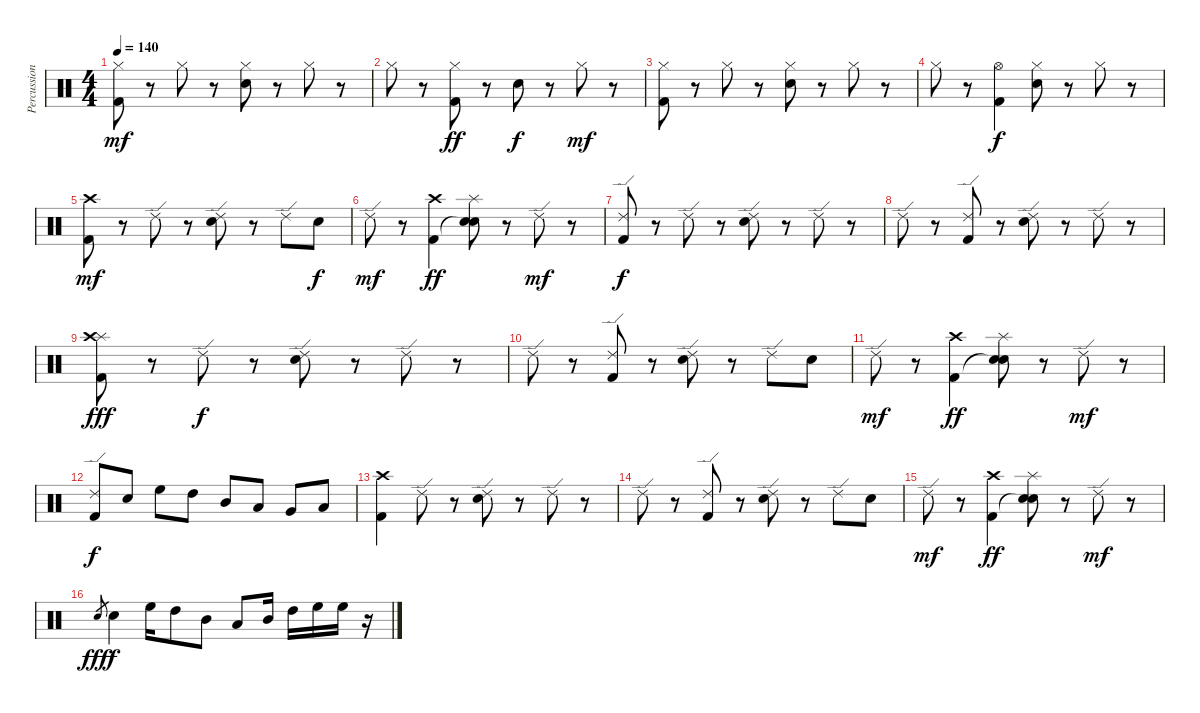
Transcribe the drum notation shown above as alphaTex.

\track ("Percussion" "Percussion") {instrument percussion}
\staff {score}
\articulation defaults
\ts (4 4)
\tempo 140
\clef neutral
\ks c
("Hi-Hat (closed)" "Kick (hit) 2").8{dy mf} r.8 "Hi-Hat (closed)".8 r.8 ("Hi-Hat (closed)" "Electric Snare (hit)").8 r.8 "Hi-Hat (closed)".8 r.8 |
"Hi-Hat (closed)".8 r.8 ("Hi-Hat (closed)" "Kick (hit) 2").8{dy ff} r.8 "Electric Snare (hit)".8{dy f} r.8 "Hi-Hat (closed)".8{dy mf} r.8 |
("Hi-Hat (closed)" "Kick (hit) 2").8 r.8 "Hi-Hat (closed)".8 r.8 ("Hi-Hat (closed)" "Electric Snare (hit)").8 r.8 "Hi-Hat (closed)".8 r.8 |
"Hi-Hat (closed)".8 r.8 ("Hi-Hat (open)" "Kick (hit) 2").4{dy f} ("Hi-Hat (closed)" "Electric Snare (hit)").8 r.8 "Hi-Hat (closed)".8 r.8 |
("Crash high (hit)" "Kick (hit) 2").8{dy mf} r.8 "Ride (edge) 2".8 r.8 ("Ride (edge) 2" "Electric Snare (hit)").8 r.8 "Ride (edge) 2".8 "Electric Snare (hit)".8{dy f} |
"Ride (edge) 2".8{dy mf} r.8 ("Crash high (hit)" "Kick (hit) 2").4{dy ff} ("Splash (hit)" "Electric Snare (hit)"{t} "Electric Snare (hit)").8 r.8 "Ride (edge) 2".8{dy mf} r.8 |
("Ride (edge) 2" "Kick (hit) 2").8{dy f} r.8 "Ride (edge) 2".8 r.8 ("Ride (edge) 2" "Electric Snare (hit)").8 r.8 "Ride (edge) 2".8 r.8 |
"Ride (edge) 2".8 r.8 ("Ride (edge) 2" "Kick (hit) 2").8 r.8 ("Ride (edge) 2" "Electric Snare (hit)").8 r.8 "Ride (edge) 2".8 r.8 |
("Splash (hit)" "Crash high (hit)" "Kick (hit) 2").8{dy fff} r.8 "Ride (edge) 2".8{dy f} r.8 ("Ride (edge) 2" "Electric Snare (hit)").8 r.8 "Ride (edge) 2".8 r.8 |
"Ride (edge) 2".8 r.8 ("Ride (edge) 2" "Kick (hit) 2").8 r.8 ("Ride (edge) 2" "Electric Snare (hit)").8 r.8 "Ride (edge) 2".8 "Electric Snare (hit)".8 |
"Ride (edge) 2".8{dy mf} r.8 ("Crash high (hit)" "Kick (hit) 2").4{dy ff} ("Splash (hit)" "Electric Snare (hit)"{t} "Electric Snare (hit)").8 r.8 "Ride (edge) 2".8{dy mf} r.8 |
("Ride (edge) 2" "Kick (hit) 2").8{dy f} "Electric Snare (hit)".8 "High Floor Tom (hit)".8 "High Tom (hit)".8 "Mid Tom (hit)".8 "Low Tom (hit)".8 "Very Low Tom (hit)".8 "Low Floor Tom (hit)".8 |
("Crash high (hit)" "Kick (hit) 2").4 "Ride (edge) 2".8 r.8 ("Ride (edge) 2" "Electric Snare (hit)").8 r.8 "Ride (edge) 2".8 r.8 |
"Ride (edge) 2".8 r.8 ("Ride (edge) 2" "Kick (hit) 2").8 r.8 ("Ride (edge) 2" "Electric Snare (hit)").8 r.8 "Ride (edge) 2".8 "Electric Snare (hit)".8 |
"Ride (edge) 2".8{dy mf} r.8 ("Crash high (hit)" "Kick (hit) 2").4{dy ff} ("Splash (hit)" "Electric Snare (hit)"{t} "Electric Snare (hit)").8 r.8 "Ride (edge) 2".8{dy mf} r.8 |
"Electric Snare (hit)".8{gr dy fff} "Electric Snare (hit)".4{dy f} "High Floor Tom (hit)".16 "High Tom (hit)".8 "Mid Tom (hit)".8 "Low Tom (hit)".8 "Mid Tom (hit)".16 "High Tom (hit)".16 "High Floor Tom (hit)".16 "High Floor Tom (hit)".16 r.16
